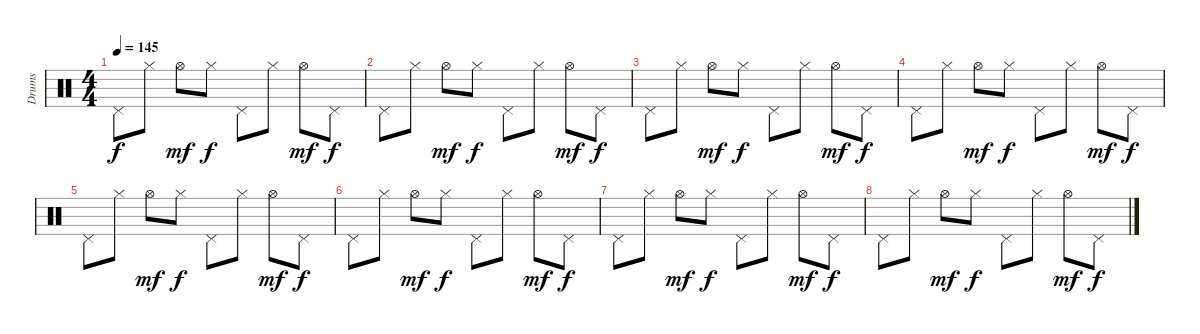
\track ("Drums" "Drums") {instrument percussion}
\staff {score}
\articulation defaults
\ts (4 4)
\tempo 145
\clef neutral
\ks c "Pedal Hi-Hat (hit)".8{dy f} "Hi-Hat (closed)".8 "Hi-Hat (open)".8{dy mf} "Hi-Hat (closed)".8{dy f} "Pedal Hi-Hat (hit)".8 "Hi-Hat (closed)".8 "Hi-Hat (open)".8{dy mf} "Pedal Hi-Hat (hit)".8{dy f}
|
"Pedal Hi-Hat (hit)".8 "Hi-Hat (closed)".8 "Hi-Hat (open)".8{dy mf} "Hi-Hat (closed)".8{dy f} "Pedal Hi-Hat (hit)".8 "Hi-Hat (closed)".8 "Hi-Hat (open)".8{dy mf} "Pedal Hi-Hat (hit)".8{dy f} |
"Pedal Hi-Hat (hit)".8 "Hi-Hat (closed)".8 "Hi-Hat (open)".8{dy mf} "Hi-Hat (closed)".8{dy f} "Pedal Hi-Hat (hit)".8 "Hi-Hat (closed)".8 "Hi-Hat (open)".8{dy mf} "Pedal Hi-Hat (hit)".8{dy f} |
"Pedal Hi-Hat (hit)".8 "Hi-Hat (closed)".8 "Hi-Hat (open)".8{dy mf} "Hi-Hat (closed)".8{dy f} "Pedal Hi-Hat (hit)".8 "Hi-Hat (closed)".8 "Hi-Hat (open)".8{dy mf} "Pedal Hi-Hat (hit)".8{dy f} |
"Pedal Hi-Hat (hit)".8 "Hi-Hat (closed)".8 "Hi-Hat (open)".8{dy mf} "Hi-Hat (closed)".8{dy f} "Pedal Hi-Hat (hit)".8 "Hi-Hat (closed)".8 "Hi-Hat (open)".8{dy mf} "Pedal Hi-Hat (hit)".8{dy f} |
"Pedal Hi-Hat (hit)".8 "Hi-Hat (closed)".8 "Hi-Hat (open)".8{dy mf} "Hi-Hat (closed)".8{dy f} "Pedal Hi-Hat (hit)".8 "Hi-Hat (closed)".8 "Hi-Hat (open)".8{dy mf} "Pedal Hi-Hat (hit)".8{dy f} |
"Pedal Hi-Hat (hit)".8 "Hi-Hat (closed)".8 "Hi-Hat (open)".8{dy mf} "Hi-Hat (closed)".8{dy f} "Pedal Hi-Hat (hit)".8 "Hi-Hat (closed)".8 "Hi-Hat (open)".8{dy mf} "Pedal Hi-Hat (hit)".8{dy f} |
"Pedal Hi-Hat (hit)".8 "Hi-Hat (closed)".8 "Hi-Hat (open)".8{dy mf} "Hi-Hat (closed)".8{dy f} "Pedal Hi-Hat (hit)".8 "Hi-Hat (closed)".8 "Hi-Hat (open)".8{dy mf} "Pedal Hi-Hat (hit)".8{dy f}
